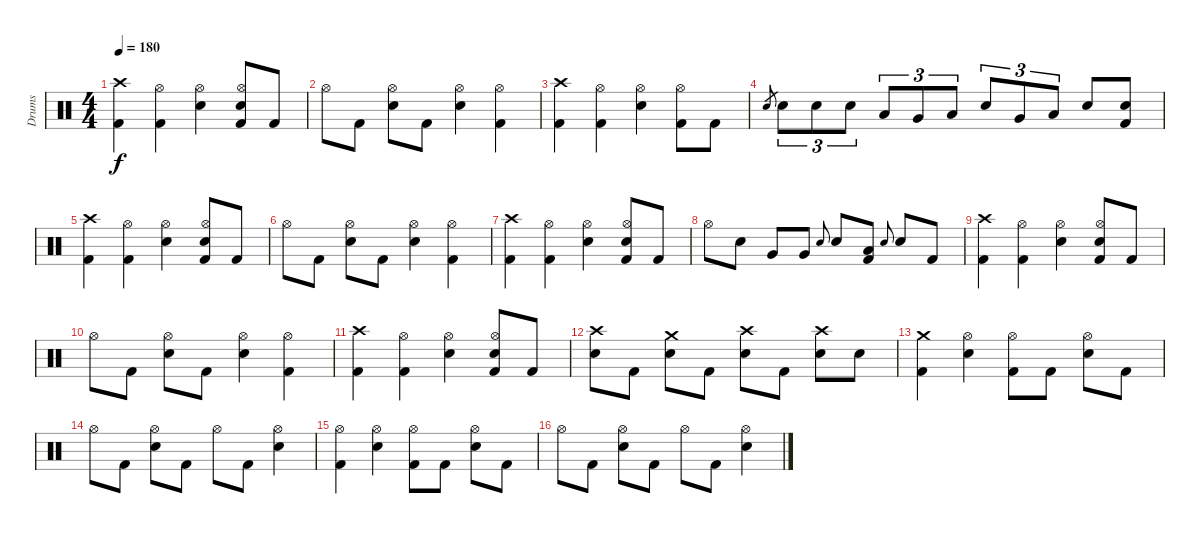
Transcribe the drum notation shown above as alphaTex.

\track ("Drums" "Drums") {instrument percussion}
\staff {score}
\articulation defaults
\ts (4 4)
\tempo 180
\clef neutral
\ks c
("Crash high (hit)" "Kick (hit) 2").4{dy f} ("Hi-Hat (open)" "Kick (hit) 2").4 ("Hi-Hat (open)" "Electric Snare (hit)").4 ("Hand Clap (hit)" "Hi-Hat (open)" "Kick (hit) 2").8 "Kick (hit) 2".8 |
"Hi-Hat (open)".8 "Kick (hit) 2".8 ("Hand Clap (hit)" "Hi-Hat (open)").8 "Kick (hit) 2".8 ("Hi-Hat (open)" "Electric Snare (hit)").4 ("Hi-Hat (open)" "Kick (hit) 2").4 |
("Crash high (hit)" "Kick (hit) 2").4 ("Hi-Hat (open)" "Kick (hit) 2").4 ("Hi-Hat (open)" "Electric Snare (hit)").4 ("Hi-Hat (open)" "Kick (hit) 2").8 "Kick (hit) 2".8 |
"Electric Snare (hit)".8{gr} "Electric Snare (hit)".8{tu (3 2)} "Electric Snare (hit)".8{tu (3 2)} "Electric Snare (hit)".8{tu (3 2)} "Low Tom (hit)".8{tu (3 2)} "Very Low Tom (hit)".8{tu (3 2)} "Low Floor Tom (hit)".8{tu (3 2)} "Electric Snare (hit)".8{tu (3 2)} "Very Low Tom (hit)".8{tu (3 2)} "Low Floor Tom (hit)".8{tu (3 2)} "Electric Snare (hit)".8 ("Hand Clap (hit)" "Kick (hit) 2").8 |
("Crash high (hit)" "Kick (hit) 2").4 ("Hi-Hat (open)" "Kick (hit) 2").4 ("Hi-Hat (open)" "Electric Snare (hit)").4 ("Hand Clap (hit)" "Hi-Hat (open)" "Kick (hit) 2").8 "Kick (hit) 2".8 |
"Hi-Hat (open)".8 "Kick (hit) 2".8 ("Hand Clap (hit)" "Hi-Hat (open)").8 "Kick (hit) 2".8 ("Hi-Hat (open)" "Electric Snare (hit)").4 ("Hi-Hat (open)" "Kick (hit) 2").4 |
("Crash high (hit)" "Kick (hit) 2").4 ("Hi-Hat (open)" "Kick (hit) 2").4 ("Hi-Hat (open)" "Electric Snare (hit)").4 ("Hand Clap (hit)" "Hi-Hat (open)" "Kick (hit) 2").8 "Kick (hit) 2".8 |
"Hi-Hat (open)".8 "Electric Snare (hit)".8 "Very Low Tom (hit)".8 "Very Low Tom (hit)".8 "Electric Snare (hit)".8{gr onbeat} "Electric Snare (hit)".8 ("Low Floor Tom (hit)" "Kick (hit) 2").8 "Electric Snare (hit)".8{gr onbeat} "Electric Snare (hit)".8 "Kick (hit) 2".8 |
("Crash high (hit)" "Kick (hit) 2").4 ("Hi-Hat (open)" "Kick (hit) 2").4 ("Hi-Hat (open)" "Electric Snare (hit)").4 ("Hand Clap (hit)" "Hi-Hat (open)" "Kick (hit) 2").8 "Kick (hit) 2".8 |
"Hi-Hat (open)".8 "Kick (hit) 2".8 ("Hand Clap (hit)" "Hi-Hat (open)").8 "Kick (hit) 2".8 ("Hi-Hat (open)" "Electric Snare (hit)").4 ("Hi-Hat (open)" "Kick (hit) 2").4 |
("Crash high (hit)" "Kick (hit) 2").4 ("Hi-Hat (open)" "Kick (hit) 2").4 ("Hi-Hat (open)" "Electric Snare (hit)").4 ("Hand Clap (hit)" "Hi-Hat (open)" "Kick (hit) 2").8 "Kick (hit) 2".8 |
("Crash high (hit)" "Electric Snare (hit)").8 "Kick (hit) 2".8 ("Crash medium (hit)" "Electric Snare (hit)").8 "Kick (hit) 2".8 ("Crash high (hit)" "Electric Snare (hit)").8 "Kick (hit) 2".8 ("Crash high (hit)" "Electric Snare (hit)").8 "Electric Snare (hit)".8 |
("Crash medium (hit)" "Kick (hit) 2").4 ("Hi-Hat (open)" "Electric Snare (hit)").4 ("Hi-Hat (open)" "Kick (hit) 2").8 "Kick (hit) 2".8 ("Hi-Hat (open)" "Electric Snare (hit)").8 "Kick (hit) 2".8 |
"Hi-Hat (open)".8 "Kick (hit) 2".8 ("Hi-Hat (open)" "Electric Snare (hit)").8 "Kick (hit) 2".8 "Hi-Hat (open)".8 "Kick (hit) 2".8 ("Hi-Hat (open)" "Electric Snare (hit)").4 |
("Hi-Hat (open)" "Kick (hit) 2").4 ("Hi-Hat (open)" "Electric Snare (hit)").4 ("Hi-Hat (open)" "Kick (hit) 2").8 "Kick (hit) 2".8 ("Hi-Hat (open)" "Electric Snare (hit)").8 "Kick (hit) 2".8 |
"Hi-Hat (open)".8 "Kick (hit) 2".8 ("Hi-Hat (open)" "Electric Snare (hit)").8 "Kick (hit) 2".8 "Hi-Hat (open)".8 "Kick (hit) 2".8 ("Hi-Hat (open)" "Electric Snare (hit)").4
